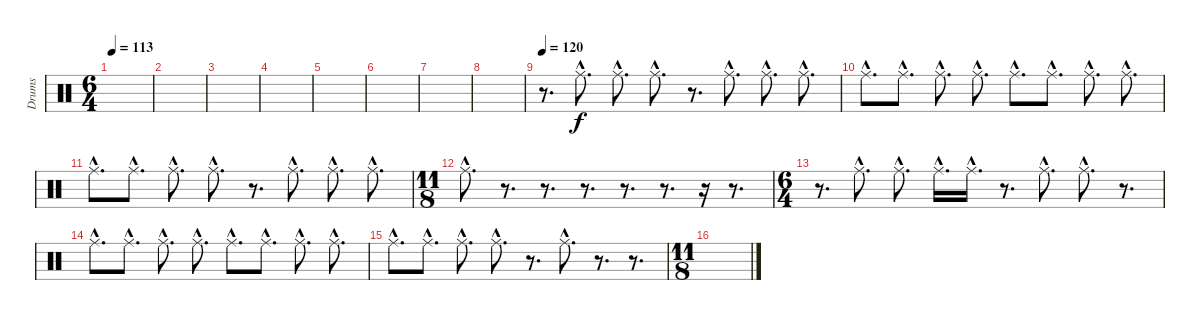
\track ("Drums" "Drums") {instrument percussion}
\staff {score}
\articulation defaults
\ts (6 4)
\section ("" "")
\tempo 113
\clef neutral
\ks c
|
|
|
|
|
|
|
|
\section ("" "")
\tempo 120
r.8{d} "Ride (middle)"{hac}.8{d} "Ride (middle)"{hac}.8{d} "Ride (middle)"{hac}.8{d} r.8{d} "Ride (middle)"{hac}.8{d} "Ride (middle)"{hac}.8{d} "Ride (middle)"{hac}.8{d} |
"Ride (middle)"{hac}.8{d} "Ride (middle)"{hac}.8{d} "Ride (middle)"{hac}.8{d} "Ride (middle)"{hac}.8{d} "Ride (middle)"{hac}.8{d} "Ride (middle)"{hac}.8{d} "Ride (middle)"{hac}.8{d} "Ride (middle)"{hac}.8{d} |
"Ride (middle)"{hac}.8{d} "Ride (middle)"{hac}.8{d} "Ride (middle)"{hac}.8{d} "Ride (middle)"{hac}.8{d} r.8{d} "Ride (middle)"{hac}.8{d} "Ride (middle)"{hac}.8{d} "Ride (middle)"{hac}.8{d} |
\ts (11 8)
"Ride (middle)"{hac}.8{d} r.8{d} r.8{d} r.8{d} r.8{d} r.8{d} r.16 r.8{d} |
\ts (6 4)
r.8{d} "Ride (middle)"{hac}.8{d} "Ride (middle)"{hac}.8{d} "Ride (middle)"{hac}.16{d} "Ride (middle)"{hac}.16{d} r.8{d} "Ride (middle)"{hac}.8{d} "Ride (middle)"{hac}.8{d} r.8{d} |
"Ride (middle)"{hac}.8{d} "Ride (middle)"{hac}.8{d} "Ride (middle)"{hac}.8{d} "Ride (middle)"{hac}.8{d} "Ride (middle)"{hac}.8{d} "Ride (middle)"{hac}.8{d} "Ride (middle)"{hac}.8{d} "Ride (middle)"{hac}.8{d} |
"Ride (middle)"{hac}.8{d} "Ride (middle)"{hac}.8{d} "Ride (middle)"{hac}.8{d} "Ride (middle)"{hac}.8{d} r.8{d} "Ride (middle)"{hac}.8{d} r.8{d} r.8{d} |
\ts (11 8)
